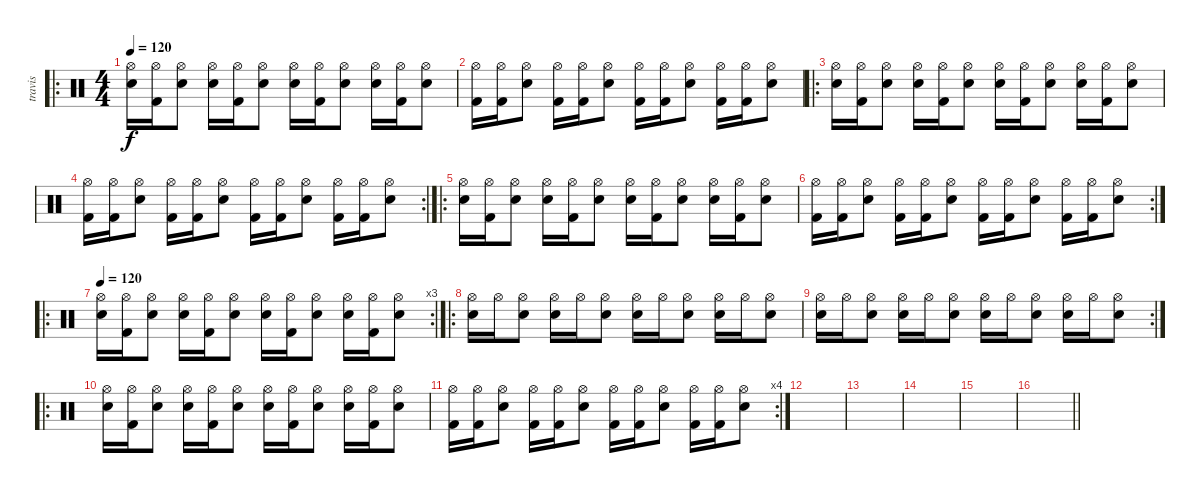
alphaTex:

\track ("travis" "travis") {instrument percussion}
\staff {score}
\articulation defaults
\ro
\ts (4 4)
\tempo 120
\clef neutral
\ks c
("Hi-Hat (open)" "Electric Snare (hit)").16{dy f} ("Hi-Hat (open)" "Kick (hit) 2").16 ("Hi-Hat (open)" "Electric Snare (hit)").8 ("Hi-Hat (open)" "Electric Snare (hit)").16 ("Hi-Hat (open)" "Kick (hit) 2").16 ("Hi-Hat (open)" "Electric Snare (hit)").8 ("Hi-Hat (open)" "Electric Snare (hit)").16 ("Hi-Hat (open)" "Kick (hit) 2").16 ("Hi-Hat (open)" "Electric Snare (hit)").8 ("Hi-Hat (open)" "Electric Snare (hit)").16 ("Hi-Hat (open)" "Kick (hit) 2").16 ("Hi-Hat (open)" "Electric Snare (hit)").8 |
("Hi-Hat (open)" "Kick (hit) 2").16 ("Hi-Hat (open)" "Kick (hit) 2").16 ("Hi-Hat (open)" "Electric Snare (hit)").8 ("Hi-Hat (open)" "Kick (hit) 2").16 ("Hi-Hat (open)" "Kick (hit) 2").16 ("Hi-Hat (open)" "Electric Snare (hit)").8 ("Hi-Hat (open)" "Kick (hit) 2").16 ("Hi-Hat (open)" "Kick (hit) 2").16 ("Hi-Hat (open)" "Electric Snare (hit)").8 ("Hi-Hat (open)" "Kick (hit) 2").16 ("Hi-Hat (open)" "Kick (hit) 2").16 ("Hi-Hat (open)" "Electric Snare (hit)").8 |
\ro
("Hi-Hat (open)" "Electric Snare (hit)").16 ("Hi-Hat (open)" "Kick (hit) 2").16 ("Hi-Hat (open)" "Electric Snare (hit)").8 ("Hi-Hat (open)" "Electric Snare (hit)").16 ("Hi-Hat (open)" "Kick (hit) 2").16 ("Hi-Hat (open)" "Electric Snare (hit)").8 ("Hi-Hat (open)" "Electric Snare (hit)").16 ("Hi-Hat (open)" "Kick (hit) 2").16 ("Hi-Hat (open)" "Electric Snare (hit)").8 ("Hi-Hat (open)" "Electric Snare (hit)").16 ("Hi-Hat (open)" "Kick (hit) 2").16 ("Hi-Hat (open)" "Electric Snare (hit)").8 |
\rc 2
("Hi-Hat (open)" "Kick (hit) 2").16 ("Hi-Hat (open)" "Kick (hit) 2").16 ("Hi-Hat (open)" "Electric Snare (hit)").8 ("Hi-Hat (open)" "Kick (hit) 2").16 ("Hi-Hat (open)" "Kick (hit) 2").16 ("Hi-Hat (open)" "Electric Snare (hit)").8 ("Hi-Hat (open)" "Kick (hit) 2").16 ("Hi-Hat (open)" "Kick (hit) 2").16 ("Hi-Hat (open)" "Electric Snare (hit)").8 ("Hi-Hat (open)" "Kick (hit) 2").16 ("Hi-Hat (open)" "Kick (hit) 2").16 ("Hi-Hat (open)" "Electric Snare (hit)").8 |
\ro
("Hi-Hat (open)" "Electric Snare (hit)").16 ("Hi-Hat (open)" "Kick (hit) 2").16 ("Hi-Hat (open)" "Electric Snare (hit)").8 ("Hi-Hat (open)" "Electric Snare (hit)").16 ("Hi-Hat (open)" "Kick (hit) 2").16 ("Hi-Hat (open)" "Electric Snare (hit)").8 ("Hi-Hat (open)" "Electric Snare (hit)").16 ("Hi-Hat (open)" "Kick (hit) 2").16 ("Hi-Hat (open)" "Electric Snare (hit)").8 ("Hi-Hat (open)" "Electric Snare (hit)").16 ("Hi-Hat (open)" "Kick (hit) 2").16 ("Hi-Hat (open)" "Electric Snare (hit)").8 |
\rc 2
("Hi-Hat (open)" "Kick (hit) 2").16 ("Hi-Hat (open)" "Kick (hit) 2").16 ("Hi-Hat (open)" "Electric Snare (hit)").8 ("Hi-Hat (open)" "Kick (hit) 2").16 ("Hi-Hat (open)" "Kick (hit) 2").16 ("Hi-Hat (open)" "Electric Snare (hit)").8 ("Hi-Hat (open)" "Kick (hit) 2").16 ("Hi-Hat (open)" "Kick (hit) 2").16 ("Hi-Hat (open)" "Electric Snare (hit)").8 ("Hi-Hat (open)" "Kick (hit) 2").16 ("Hi-Hat (open)" "Kick (hit) 2").16 ("Hi-Hat (open)" "Electric Snare (hit)").8 |
\ro
\rc 3
\tempo 120
("Hi-Hat (open)" "Electric Snare (hit)").16{volume 16} ("Hi-Hat (open)" "Kick (hit) 2").16 ("Hi-Hat (open)" "Electric Snare (hit)").8 ("Hi-Hat (open)" "Electric Snare (hit)").16 ("Hi-Hat (open)" "Kick (hit) 2").16 ("Hi-Hat (open)" "Electric Snare (hit)").8 ("Hi-Hat (open)" "Electric Snare (hit)").16 ("Hi-Hat (open)" "Kick (hit) 2").16 ("Hi-Hat (open)" "Electric Snare (hit)").8 ("Hi-Hat (open)" "Electric Snare (hit)").16 ("Hi-Hat (open)" "Kick (hit) 2").16 ("Hi-Hat (open)" "Electric Snare (hit)").8 |
\ro
("Hi-Hat (open)" "Electric Snare (hit)").16 "Hi-Hat (open)".16 ("Hi-Hat (open)" "Electric Snare (hit)").8 ("Hi-Hat (open)" "Electric Snare (hit)").16 "Hi-Hat (open)".16 ("Hi-Hat (open)" "Electric Snare (hit)").8 ("Hi-Hat (open)" "Electric Snare (hit)").16 "Hi-Hat (open)".16 ("Hi-Hat (open)" "Electric Snare (hit)").8 ("Hi-Hat (open)" "Electric Snare (hit)").16 "Hi-Hat (open)".16 ("Hi-Hat (open)" "Electric Snare (hit)").8 |
\rc 2
("Hi-Hat (open)" "Electric Snare (hit)").16 "Hi-Hat (open)".16 ("Hi-Hat (open)" "Electric Snare (hit)").8 ("Hi-Hat (open)" "Electric Snare (hit)").16 "Hi-Hat (open)".16 ("Hi-Hat (open)" "Electric Snare (hit)").8 ("Hi-Hat (open)" "Electric Snare (hit)").16 "Hi-Hat (open)".16 ("Hi-Hat (open)" "Electric Snare (hit)").8 ("Hi-Hat (open)" "Electric Snare (hit)").16 "Hi-Hat (open)".16 ("Hi-Hat (open)" "Electric Snare (hit)").8 |
\ro
("Hi-Hat (open)" "Electric Snare (hit)").16 ("Hi-Hat (open)" "Kick (hit) 2").16 ("Hi-Hat (open)" "Electric Snare (hit)").8 ("Hi-Hat (open)" "Electric Snare (hit)").16 ("Hi-Hat (open)" "Kick (hit) 2").16 ("Hi-Hat (open)" "Electric Snare (hit)").8 ("Hi-Hat (open)" "Electric Snare (hit)").16 ("Hi-Hat (open)" "Kick (hit) 2").16 ("Hi-Hat (open)" "Electric Snare (hit)").8 ("Hi-Hat (open)" "Electric Snare (hit)").16 ("Hi-Hat (open)" "Kick (hit) 2").16 ("Hi-Hat (open)" "Electric Snare (hit)").8 |
\rc 4
("Hi-Hat (open)" "Kick (hit) 2").16 ("Hi-Hat (open)" "Kick (hit) 2").16 ("Hi-Hat (open)" "Electric Snare (hit)").8 ("Hi-Hat (open)" "Kick (hit) 2").16 ("Hi-Hat (open)" "Kick (hit) 2").16 ("Hi-Hat (open)" "Electric Snare (hit)").8 ("Hi-Hat (open)" "Kick (hit) 2").16 ("Hi-Hat (open)" "Kick (hit) 2").16 ("Hi-Hat (open)" "Electric Snare (hit)").8 ("Hi-Hat (open)" "Kick (hit) 2").16 ("Hi-Hat (open)" "Kick (hit) 2").16 ("Hi-Hat (open)" "Electric Snare (hit)").8 |
|
|
|
|
\barLineRight lightlight
